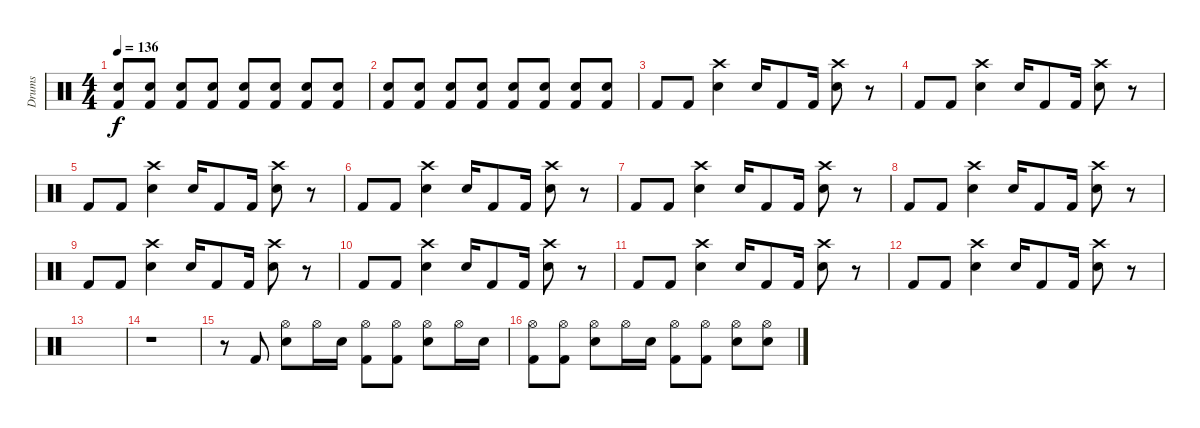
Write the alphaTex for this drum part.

\track ("Drums" "Drums") {instrument percussion}
\staff {score}
\articulation defaults
\ts (4 4)
\tempo 136
\clef neutral
\ks c
("Snare (hit) 2" "Kick (hit) 2").8{dy f volume 16} ("Snare (hit) 2" "Kick (hit) 2").8 ("Snare (hit) 2" "Kick (hit) 2").8 ("Snare (hit) 2" "Kick (hit) 2").8 ("Snare (hit) 2" "Kick (hit) 2").8 ("Snare (hit) 2" "Kick (hit) 2").8 ("Snare (hit) 2" "Kick (hit) 2").8 ("Snare (hit) 2" "Kick (hit) 2").8 |
("Snare (hit) 2" "Kick (hit) 2").8{volume 16} ("Snare (hit) 2" "Kick (hit) 2").8 ("Snare (hit) 2" "Kick (hit) 2").8 ("Snare (hit) 2" "Kick (hit) 2").8 ("Snare (hit) 2" "Kick (hit) 2").8 ("Snare (hit) 2" "Kick (hit) 2").8 ("Snare (hit) 2" "Kick (hit) 2").8 ("Snare (hit) 2" "Kick (hit) 2").8 |
"Kick (hit) 2".8 "Kick (hit) 2".8 ("Crash high (hit)" "Snare (hit) 2").4 "Snare (hit) 2".16 "Kick (hit) 2".8 "Kick (hit) 2".16 ("Crash high (hit)" "Snare (hit) 2").8 r.8 |
"Kick (hit) 2".8 "Kick (hit) 2".8 ("Crash high (hit)" "Snare (hit) 2").4 "Snare (hit) 2".16 "Kick (hit) 2".8 "Kick (hit) 2".16 ("Crash high (hit)" "Snare (hit) 2").8 r.8 |
"Kick (hit) 2".8 "Kick (hit) 2".8 ("Crash high (hit)" "Snare (hit) 2").4 "Snare (hit) 2".16 "Kick (hit) 2".8 "Kick (hit) 2".16 ("Crash high (hit)" "Snare (hit) 2").8 r.8 |
"Kick (hit) 2".8 "Kick (hit) 2".8 ("Crash high (hit)" "Snare (hit) 2").4 "Snare (hit) 2".16 "Kick (hit) 2".8 "Kick (hit) 2".16 ("Crash high (hit)" "Snare (hit) 2").8 r.8 |
"Kick (hit) 2".8 "Kick (hit) 2".8 ("Crash high (hit)" "Snare (hit) 2").4 "Snare (hit) 2".16 "Kick (hit) 2".8 "Kick (hit) 2".16 ("Crash high (hit)" "Snare (hit) 2").8 r.8 |
"Kick (hit) 2".8 "Kick (hit) 2".8 ("Crash high (hit)" "Snare (hit) 2").4 "Snare (hit) 2".16 "Kick (hit) 2".8 "Kick (hit) 2".16 ("Crash high (hit)" "Snare (hit) 2").8 r.8 |
"Kick (hit) 2".8 "Kick (hit) 2".8 ("Crash high (hit)" "Snare (hit) 2").4 "Snare (hit) 2".16 "Kick (hit) 2".8 "Kick (hit) 2".16 ("Crash high (hit)" "Snare (hit) 2").8 r.8 |
"Kick (hit) 2".8 "Kick (hit) 2".8 ("Crash high (hit)" "Snare (hit) 2").4 "Snare (hit) 2".16 "Kick (hit) 2".8 "Kick (hit) 2".16 ("Crash high (hit)" "Snare (hit) 2").8 r.8 |
"Kick (hit) 2".8 "Kick (hit) 2".8 ("Crash high (hit)" "Snare (hit) 2").4 "Snare (hit) 2".16 "Kick (hit) 2".8 "Kick (hit) 2".16 ("Crash high (hit)" "Snare (hit) 2").8 r.8 |
"Kick (hit) 2".8 "Kick (hit) 2".8 ("Crash high (hit)" "Snare (hit) 2").4 "Snare (hit) 2".16 "Kick (hit) 2".8 "Kick (hit) 2".16 ("Crash high (hit)" "Snare (hit) 2").8 r.8 |
|
r.1 |
r.8 "Kick (hit) 2".8 ("Hi-Hat (open)" "Snare (hit) 2").8 "Hi-Hat (open)".16 "Snare (hit) 2".16 ("Hi-Hat (open)" "Kick (hit) 2").8 ("Hi-Hat (open)" "Kick (hit) 2").8 ("Hi-Hat (open)" "Snare (hit) 2").8 "Hi-Hat (open)".16 "Snare (hit) 2".16 |
("Hi-Hat (open)" "Kick (hit) 2").8 ("Hi-Hat (open)" "Kick (hit) 2").8 ("Hi-Hat (open)" "Snare (hit) 2").8 "Hi-Hat (open)".16 "Snare (hit) 2".16 ("Hi-Hat (open)" "Kick (hit) 2").8 ("Hi-Hat (open)" "Kick (hit) 2").8 ("Hi-Hat (open)" "Snare (hit) 2").8 ("Hi-Hat (open)" "Snare (hit) 2").8
